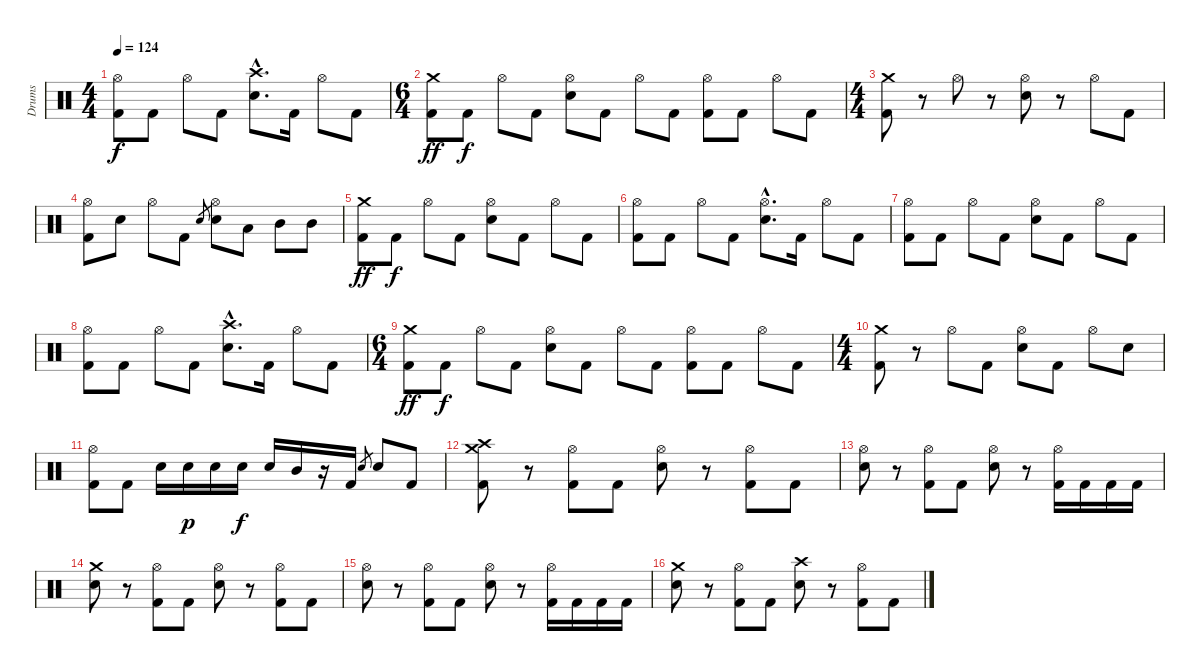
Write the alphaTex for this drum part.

\track ("Drums" "Drums") {instrument percussion}
\staff {score}
\articulation defaults
\ts (4 4)
\tempo 124
\clef neutral
\ks c
("Hi-Hat (open)" "Kick (hit) 2").8{dy f} "Kick (hit) 2".8 "Hi-Hat (open)".8 "Kick (hit) 2".8 ("Crash high (hit)"{hac} "Electric Snare (hit)"{hac}).8{d} "Kick (hit) 2".16 "Hi-Hat (open)".8 "Kick (hit) 2".8 |
\ts (6 4)
("Crash medium (hit)" "Kick (hit) 2").8{dy ff} "Kick (hit) 2".8{dy f} "Hi-Hat (open)".8 "Kick (hit) 2".8 ("Hi-Hat (open)" "Electric Snare (hit)").8 "Kick (hit) 2".8 "Hi-Hat (open)".8 "Kick (hit) 2".8 ("Hi-Hat (open)" "Kick (hit) 2").8 "Kick (hit) 2".8 "Hi-Hat (open)".8 "Kick (hit) 2".8 |
\ts (4 4)
("Crash medium (hit)" "Kick (hit) 2").8 r.8 "Hi-Hat (open)".8 r.8 ("Hi-Hat (open)" "Electric Snare (hit)").8 r.8 "Hi-Hat (open)".8 "Kick (hit) 2".8 |
("Hi-Hat (open)" "Kick (hit) 2").8 "Electric Snare (hit)".8 "Hi-Hat (open)".8 "Kick (hit) 2".8 "Electric Snare (hit)".8{gr} ("Hi-Hat (open)" "Electric Snare (hit)").8 "Low Tom (hit)".8 "Mid Tom (hit)".8 "Mid Tom (hit)".8 |
("Crash medium (hit)" "Kick (hit) 2").8{dy ff} "Kick (hit) 2".8{dy f} "Hi-Hat (open)".8 "Kick (hit) 2".8 ("Hi-Hat (open)" "Electric Snare (hit)").8 "Kick (hit) 2".8 "Hi-Hat (open)".8 "Kick (hit) 2".8 |
("Hi-Hat (open)" "Kick (hit) 2").8 "Kick (hit) 2".8 "Hi-Hat (open)".8 "Kick (hit) 2".8 ("Hi-Hat (open)"{hac} "Electric Snare (hit)"{hac}).8{d} "Kick (hit) 2".16 "Hi-Hat (open)".8 "Kick (hit) 2".8 |
("Hi-Hat (open)" "Kick (hit) 2").8 "Kick (hit) 2".8 "Hi-Hat (open)".8 "Kick (hit) 2".8 ("Hi-Hat (open)" "Electric Snare (hit)").8 "Kick (hit) 2".8 "Hi-Hat (open)".8 "Kick (hit) 2".8 |
("Hi-Hat (open)" "Kick (hit) 2").8 "Kick (hit) 2".8 "Hi-Hat (open)".8 "Kick (hit) 2".8 ("Crash high (hit)"{hac} "Electric Snare (hit)"{hac}).8{d} "Kick (hit) 2".16 "Hi-Hat (open)".8 "Kick (hit) 2".8 |
\ts (6 4)
("Crash medium (hit)" "Kick (hit) 2").8{dy ff} "Kick (hit) 2".8{dy f} "Hi-Hat (open)".8 "Kick (hit) 2".8 ("Hi-Hat (open)" "Electric Snare (hit)").8 "Kick (hit) 2".8 "Hi-Hat (open)".8 "Kick (hit) 2".8 ("Hi-Hat (open)" "Kick (hit) 2").8 "Kick (hit) 2".8 "Hi-Hat (open)".8 "Kick (hit) 2".8 |
\ts (4 4)
("Crash medium (hit)" "Kick (hit) 2").8 r.8 "Hi-Hat (open)".8 "Kick (hit) 2".8 ("Hi-Hat (open)" "Electric Snare (hit)").8 "Kick (hit) 2".8 "Hi-Hat (open)".8 "Electric Snare (hit)".8 |
("Hi-Hat (open)" "Kick (hit) 2").8 "Kick (hit) 2".8 "Electric Snare (hit)".16 "Electric Snare (hit)".16{dy p} "Electric Snare (hit)".16 "Electric Snare (hit)".16{dy f} "Electric Snare (hit)".16 "Mid Tom (hit)".16 r.16 "Kick (hit) 2".16 "Electric Snare (hit)".8{gr} "Electric Snare (hit)".8 "Kick (hit) 2".8 |
("Crash medium (hit)" "Crash high (hit)" "Kick (hit) 2").8 r.8 ("Hi-Hat (open)" "Kick (hit) 2").8 "Kick (hit) 2".8 ("Hi-Hat (open)" "Electric Snare (hit)").8 r.8 ("Hi-Hat (open)" "Kick (hit) 2").8 "Kick (hit) 2".8 |
("Hi-Hat (open)" "Electric Snare (hit)").8 r.8 ("Hi-Hat (open)" "Kick (hit) 2").8 "Kick (hit) 2".8 ("Hi-Hat (open)" "Electric Snare (hit)").8 r.8 ("Hi-Hat (open)" "Kick (hit) 2").16 "Kick (hit) 2".16 "Kick (hit) 2".16 "Kick (hit) 2".16 |
("Crash medium (hit)" "Electric Snare (hit)").8 r.8 ("Hi-Hat (open)" "Kick (hit) 2").8 "Kick (hit) 2".8 ("Hi-Hat (open)" "Electric Snare (hit)").8 r.8 ("Hi-Hat (open)" "Kick (hit) 2").8 "Kick (hit) 2".8 |
("Hi-Hat (open)" "Electric Snare (hit)").8 r.8 ("Hi-Hat (open)" "Kick (hit) 2").8 "Kick (hit) 2".8 ("Hi-Hat (open)" "Electric Snare (hit)").8 r.8 ("Hi-Hat (open)" "Kick (hit) 2").16 "Kick (hit) 2".16 "Kick (hit) 2".16 "Kick (hit) 2".16 |
("Crash medium (hit)" "Electric Snare (hit)").8 r.8 ("Hi-Hat (open)" "Kick (hit) 2").8 "Kick (hit) 2".8 ("Crash high (hit)" "Electric Snare (hit)").8 r.8 ("Hi-Hat (open)" "Kick (hit) 2").8 "Kick (hit) 2".8
